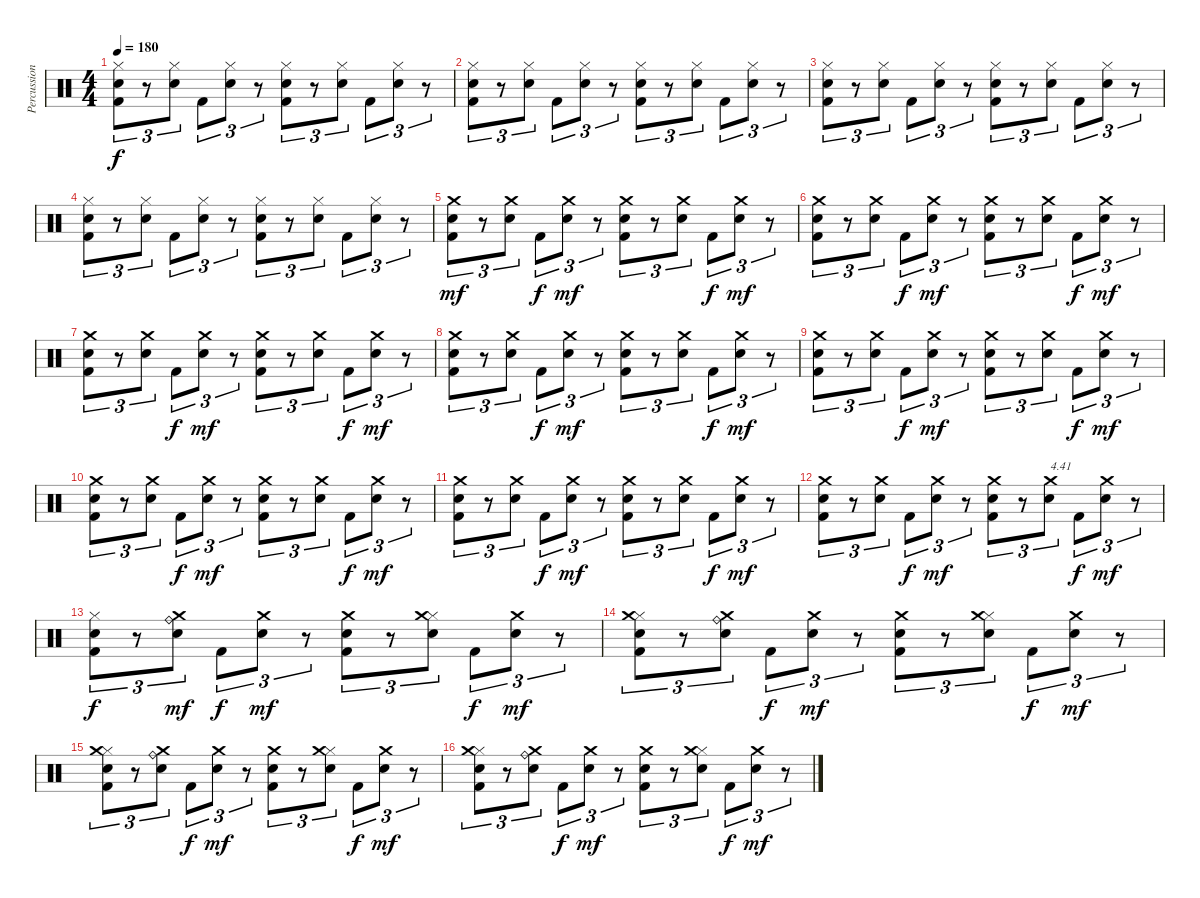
\track ("Percussions" "Percussion") {instrument percussion}
\staff {score}
\articulation defaults
\ts (4 4)
\tempo 180
\clef neutral
\ks c
("Kick (hit) 2" "Electric Snare (hit)" "Hi-Hat (closed)").8{tu (3 2) dy f} r.8{tu (3 2)} ("Electric Snare (hit)" "Hi-Hat (closed)").8{tu (3 2)} "Kick (hit) 2".8{tu (3 2)} ("Electric Snare (hit)" "Hi-Hat (closed)").8{tu (3 2)} r.8{tu (3 2)} ("Kick (hit) 2" "Electric Snare (hit)" "Hi-Hat (closed)").8{tu (3 2)} r.8{tu (3 2)} ("Electric Snare (hit)" "Hi-Hat (closed)").8{tu (3 2)} "Kick (hit) 2".8{tu (3 2)} ("Electric Snare (hit)" "Hi-Hat (closed)").8{tu (3 2)} r.8{tu (3 2)} |
("Kick (hit) 2" "Electric Snare (hit)" "Hi-Hat (closed)").8{tu (3 2)} r.8{tu (3 2)} ("Electric Snare (hit)" "Hi-Hat (closed)").8{tu (3 2)} "Kick (hit) 2".8{tu (3 2)} ("Electric Snare (hit)" "Hi-Hat (closed)").8{tu (3 2)} r.8{tu (3 2)} ("Kick (hit) 2" "Electric Snare (hit)" "Hi-Hat (closed)").8{tu (3 2)} r.8{tu (3 2)} ("Electric Snare (hit)" "Hi-Hat (closed)").8{tu (3 2)} "Kick (hit) 2".8{tu (3 2)} ("Electric Snare (hit)" "Hi-Hat (closed)").8{tu (3 2)} r.8{tu (3 2)} |
("Kick (hit) 2" "Electric Snare (hit)" "Hi-Hat (closed)").8{tu (3 2)} r.8{tu (3 2)} ("Electric Snare (hit)" "Hi-Hat (closed)").8{tu (3 2)} "Kick (hit) 2".8{tu (3 2)} ("Electric Snare (hit)" "Hi-Hat (closed)").8{tu (3 2)} r.8{tu (3 2)} ("Kick (hit) 2" "Electric Snare (hit)" "Hi-Hat (closed)").8{tu (3 2)} r.8{tu (3 2)} ("Electric Snare (hit)" "Hi-Hat (closed)").8{tu (3 2)} "Kick (hit) 2".8{tu (3 2)} ("Electric Snare (hit)" "Hi-Hat (closed)").8{tu (3 2)} r.8{tu (3 2)} |
("Kick (hit) 2" "Electric Snare (hit)" "Hi-Hat (closed)").8{tu (3 2)} r.8{tu (3 2)} ("Electric Snare (hit)" "Hi-Hat (closed)").8{tu (3 2)} "Kick (hit) 2".8{tu (3 2)} ("Electric Snare (hit)" "Hi-Hat (closed)").8{tu (3 2)} r.8{tu (3 2)} ("Kick (hit) 2" "Electric Snare (hit)" "Hi-Hat (closed)").8{tu (3 2)} r.8{tu (3 2)} ("Electric Snare (hit)" "Hi-Hat (closed)").8{tu (3 2)} "Kick (hit) 2".8{tu (3 2)} ("Electric Snare (hit)" "Hi-Hat (closed)").8{tu (3 2)} r.8{tu (3 2)} |
("Kick (hit) 2" "Electric Snare (hit)" "Crash medium (hit)").8{tu (3 2) dy mf} r.8{tu (3 2)} ("Electric Snare (hit)" "Crash medium (hit)").8{tu (3 2)} "Kick (hit) 2".8{tu (3 2) dy f} ("Electric Snare (hit)" "Crash medium (hit)").8{tu (3 2) dy mf} r.8{tu (3 2)} ("Kick (hit) 2" "Electric Snare (hit)" "Crash medium (hit)").8{tu (3 2)} r.8{tu (3 2)} ("Electric Snare (hit)" "Crash medium (hit)").8{tu (3 2)} "Kick (hit) 2".8{tu (3 2) dy f} ("Electric Snare (hit)" "Crash medium (hit)").8{tu (3 2) dy mf} r.8{tu (3 2)} |
("Kick (hit) 2" "Electric Snare (hit)" "Crash medium (hit)").8{tu (3 2)} r.8{tu (3 2)} ("Electric Snare (hit)" "Crash medium (hit)").8{tu (3 2)} "Kick (hit) 2".8{tu (3 2) dy f} ("Electric Snare (hit)" "Crash medium (hit)").8{tu (3 2) dy mf} r.8{tu (3 2)} ("Kick (hit) 2" "Electric Snare (hit)" "Crash medium (hit)").8{tu (3 2)} r.8{tu (3 2)} ("Electric Snare (hit)" "Crash medium (hit)").8{tu (3 2)} "Kick (hit) 2".8{tu (3 2) dy f} ("Electric Snare (hit)" "Crash medium (hit)").8{tu (3 2) dy mf} r.8{tu (3 2)} |
("Kick (hit) 2" "Electric Snare (hit)" "Crash medium (hit)").8{tu (3 2)} r.8{tu (3 2)} ("Electric Snare (hit)" "Crash medium (hit)").8{tu (3 2)} "Kick (hit) 2".8{tu (3 2) dy f} ("Electric Snare (hit)" "Crash medium (hit)").8{tu (3 2) dy mf} r.8{tu (3 2)} ("Kick (hit) 2" "Electric Snare (hit)" "Crash medium (hit)").8{tu (3 2)} r.8{tu (3 2)} ("Electric Snare (hit)" "Crash medium (hit)").8{tu (3 2)} "Kick (hit) 2".8{tu (3 2) dy f} ("Electric Snare (hit)" "Crash medium (hit)").8{tu (3 2) dy mf} r.8{tu (3 2)} |
("Kick (hit) 2" "Electric Snare (hit)" "Crash medium (hit)").8{tu (3 2)} r.8{tu (3 2)} ("Electric Snare (hit)" "Crash medium (hit)").8{tu (3 2)} "Kick (hit) 2".8{tu (3 2) dy f} ("Electric Snare (hit)" "Crash medium (hit)").8{tu (3 2) dy mf} r.8{tu (3 2)} ("Kick (hit) 2" "Electric Snare (hit)" "Crash medium (hit)").8{tu (3 2)} r.8{tu (3 2)} ("Electric Snare (hit)" "Crash medium (hit)").8{tu (3 2)} "Kick (hit) 2".8{tu (3 2) dy f} ("Electric Snare (hit)" "Crash medium (hit)").8{tu (3 2) dy mf} r.8{tu (3 2)} |
("Kick (hit) 2" "Electric Snare (hit)" "Crash medium (hit)").8{tu (3 2)} r.8{tu (3 2)} ("Electric Snare (hit)" "Crash medium (hit)").8{tu (3 2)} "Kick (hit) 2".8{tu (3 2) dy f} ("Electric Snare (hit)" "Crash medium (hit)").8{tu (3 2) dy mf} r.8{tu (3 2)} ("Kick (hit) 2" "Electric Snare (hit)" "Crash medium (hit)").8{tu (3 2)} r.8{tu (3 2)} ("Electric Snare (hit)" "Crash medium (hit)").8{tu (3 2)} "Kick (hit) 2".8{tu (3 2) dy f} ("Electric Snare (hit)" "Crash medium (hit)").8{tu (3 2) dy mf} r.8{tu (3 2)} |
("Kick (hit) 2" "Electric Snare (hit)" "Crash medium (hit)").8{tu (3 2)} r.8{tu (3 2)} ("Electric Snare (hit)" "Crash medium (hit)").8{tu (3 2)} "Kick (hit) 2".8{tu (3 2) dy f} ("Electric Snare (hit)" "Crash medium (hit)").8{tu (3 2) dy mf} r.8{tu (3 2)} ("Kick (hit) 2" "Electric Snare (hit)" "Crash medium (hit)").8{tu (3 2)} r.8{tu (3 2)} ("Electric Snare (hit)" "Crash medium (hit)").8{tu (3 2)} "Kick (hit) 2".8{tu (3 2) dy f} ("Electric Snare (hit)" "Crash medium (hit)").8{tu (3 2) dy mf} r.8{tu (3 2)} |
("Kick (hit) 2" "Electric Snare (hit)" "Crash medium (hit)").8{tu (3 2)} r.8{tu (3 2)} ("Electric Snare (hit)" "Crash medium (hit)").8{tu (3 2)} "Kick (hit) 2".8{tu (3 2) dy f} ("Electric Snare (hit)" "Crash medium (hit)").8{tu (3 2) dy mf} r.8{tu (3 2)} ("Kick (hit) 2" "Electric Snare (hit)" "Crash medium (hit)").8{tu (3 2)} r.8{tu (3 2)} ("Electric Snare (hit)" "Crash medium (hit)").8{tu (3 2)} "Kick (hit) 2".8{tu (3 2) dy f} ("Electric Snare (hit)" "Crash medium (hit)").8{tu (3 2) dy mf} r.8{tu (3 2)} |
("Kick (hit) 2" "Electric Snare (hit)" "Crash medium (hit)").8{tu (3 2)} r.8{tu (3 2)} ("Electric Snare (hit)" "Crash medium (hit)").8{tu (3 2)} "Kick (hit) 2".8{tu (3 2) dy f} ("Electric Snare (hit)" "Crash medium (hit)").8{tu (3 2) dy mf} r.8{tu (3 2)} ("Kick (hit) 2" "Electric Snare (hit)" "Crash medium (hit)").8{tu (3 2)} r.8{tu (3 2)} ("Electric Snare (hit)" "Crash medium (hit)").8{tu (3 2) txt "4.41"} "Kick (hit) 2".8{tu (3 2) dy f} ("Electric Snare (hit)" "Crash medium (hit)").8{tu (3 2) dy mf} r.8{tu (3 2)} |
("Kick (hit) 2" "Electric Snare (hit)" "Hi-Hat (closed)").8{tu (3 2) dy f} r.8{tu (3 2)} ("Electric Snare (hit)" "Ride (bell)" "Crash medium (hit)").8{tu (3 2) dy mf} "Kick (hit) 2".8{tu (3 2) dy f} ("Electric Snare (hit)" "Crash medium (hit)").8{tu (3 2) dy mf} r.8{tu (3 2)} ("Kick (hit) 2" "Electric Snare (hit)" "Crash medium (hit)").8{tu (3 2)} r.8{tu (3 2)} ("Electric Snare (hit)" "Hi-Hat (closed)" "Crash medium (hit)").8{tu (3 2)} "Kick (hit) 2".8{tu (3 2) dy f} ("Electric Snare (hit)" "Crash medium (hit)").8{tu (3 2) dy mf} r.8{tu (3 2)} |
("Kick (hit) 2" "Electric Snare (hit)" "Hi-Hat (closed)" "Crash medium (hit)").8{tu (3 2)} r.8{tu (3 2)} ("Electric Snare (hit)" "Ride (bell)" "Crash medium (hit)").8{tu (3 2)} "Kick (hit) 2".8{tu (3 2) dy f} ("Electric Snare (hit)" "Crash medium (hit)").8{tu (3 2) dy mf} r.8{tu (3 2)} ("Kick (hit) 2" "Electric Snare (hit)" "Crash medium (hit)").8{tu (3 2)} r.8{tu (3 2)} ("Electric Snare (hit)" "Hi-Hat (closed)" "Crash medium (hit)").8{tu (3 2)} "Kick (hit) 2".8{tu (3 2) dy f} ("Electric Snare (hit)" "Crash medium (hit)").8{tu (3 2) dy mf} r.8{tu (3 2)} |
("Kick (hit) 2" "Electric Snare (hit)" "Hi-Hat (closed)" "Crash medium (hit)").8{tu (3 2)} r.8{tu (3 2)} ("Electric Snare (hit)" "Ride (bell)" "Crash medium (hit)").8{tu (3 2)} "Kick (hit) 2".8{tu (3 2) dy f} ("Electric Snare (hit)" "Crash medium (hit)").8{tu (3 2) dy mf} r.8{tu (3 2)} ("Kick (hit) 2" "Electric Snare (hit)" "Crash medium (hit)").8{tu (3 2)} r.8{tu (3 2)} ("Electric Snare (hit)" "Hi-Hat (closed)" "Crash medium (hit)").8{tu (3 2)} "Kick (hit) 2".8{tu (3 2) dy f} ("Electric Snare (hit)" "Crash medium (hit)").8{tu (3 2) dy mf} r.8{tu (3 2)} |
("Kick (hit) 2" "Electric Snare (hit)" "Hi-Hat (closed)" "Crash medium (hit)").8{tu (3 2)} r.8{tu (3 2)} ("Electric Snare (hit)" "Ride (bell)" "Crash medium (hit)").8{tu (3 2)} "Kick (hit) 2".8{tu (3 2) dy f} ("Electric Snare (hit)" "Crash medium (hit)").8{tu (3 2) dy mf} r.8{tu (3 2)} ("Kick (hit) 2" "Electric Snare (hit)" "Crash medium (hit)").8{tu (3 2)} r.8{tu (3 2)} ("Electric Snare (hit)" "Hi-Hat (closed)" "Crash medium (hit)").8{tu (3 2)} "Kick (hit) 2".8{tu (3 2) dy f} ("Electric Snare (hit)" "Crash medium (hit)").8{tu (3 2) dy mf} r.8{tu (3 2)}
